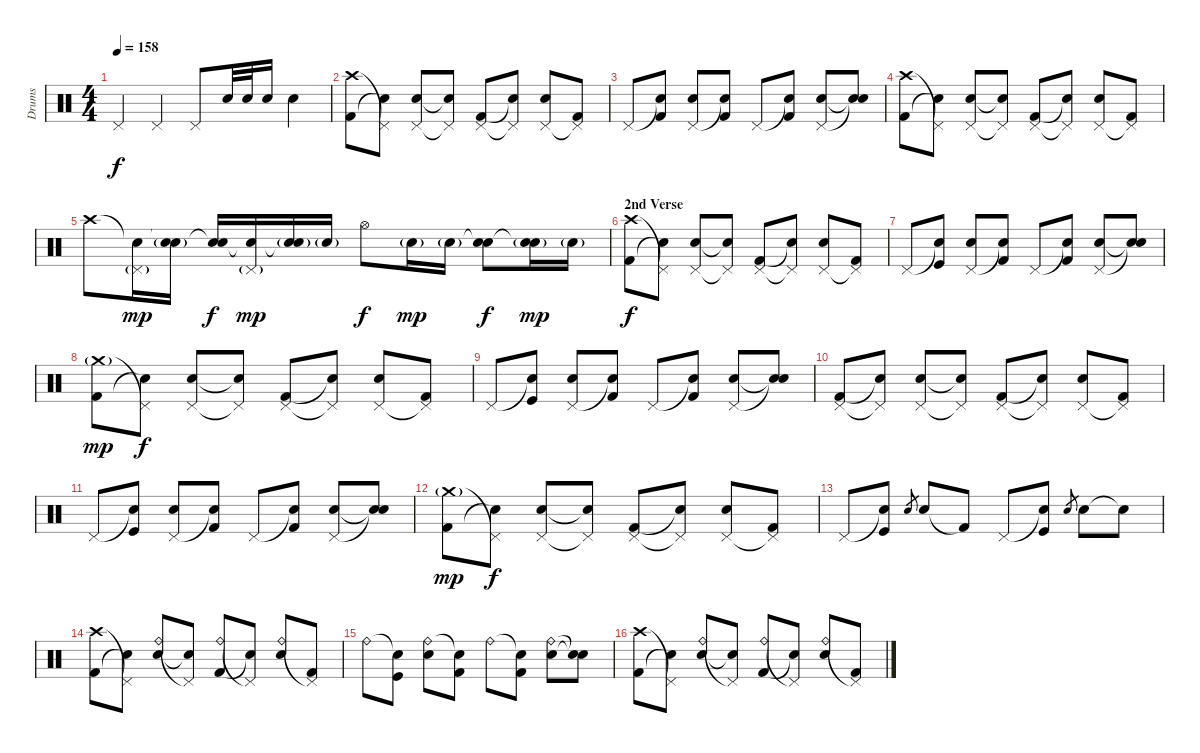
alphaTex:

\track ("Drums" "Drums") {instrument percussion}
\staff {score}
\articulation defaults
\ts (4 4)
\tempo 158
\clef neutral
\ks c "Pedal Hi-Hat (hit)".4{dy f} "Pedal Hi-Hat (hit)".4 "Pedal Hi-Hat (hit)".8 "Electric Snare (hit)".32 "Electric Snare (hit)".32 "Electric Snare (hit)".16 "Electric Snare (hit)".4
|
("Crash high (hit)" "Kick (hit) 2").8 ("Pedal Hi-Hat (hit)"{t} "Electric Snare (hit)"{t}).8 ("Pedal Hi-Hat (hit)" "Electric Snare (hit)").8 ("Pedal Hi-Hat (hit)"{t} "Snare (hit)"{t}).8 ("Pedal Hi-Hat (hit)" "Kick (hit) 2").8 ("Pedal Hi-Hat (hit)"{t} "Electric Snare (hit)"{t}).8 ("Pedal Hi-Hat (hit)" "Electric Snare (hit)").8 ("Pedal Hi-Hat (hit)"{t} "Kick (hit) 2").8 |
"Pedal Hi-Hat (hit)".8 ("Snare (hit)"{t} "Kick (hit) 2").8 ("Pedal Hi-Hat (hit)" "Electric Snare (hit)").8 ("Snare (hit)"{t} "Kick (hit) 2").8 "Pedal Hi-Hat (hit)".8 ("Snare (hit)"{t} "Kick (hit) 2").8 ("Pedal Hi-Hat (hit)" "Electric Snare (hit)").8 ("Snare (hit)"{t} "Snare (hit)"{t}).8 |
("Crash high (hit)" "Kick (hit) 2").8 ("Pedal Hi-Hat (hit)"{t} "Electric Snare (hit)"{t}).8 ("Pedal Hi-Hat (hit)" "Electric Snare (hit)").8 ("Pedal Hi-Hat (hit)"{t} "Snare (hit)"{t}).8 ("Pedal Hi-Hat (hit)" "Kick (hit) 2").8 ("Pedal Hi-Hat (hit)"{t} "Electric Snare (hit)"{t}).8 ("Pedal Hi-Hat (hit)" "Electric Snare (hit)").8 ("Pedal Hi-Hat (hit)"{t} "Kick (hit) 2").8 |
"Crash high (hit)".8 ("Snare (hit)"{t} "Pedal Hi-Hat (hit)"{g}).16{dy mp} ("Snare (hit)"{t} "Electric Snare (hit)"{g}).16 ("Snare (hit)"{t} "Electric Snare (hit)").16{dy f} ("Snare (hit)"{t} "Pedal Hi-Hat (hit)"{g}).16{dy mp} ("Snare (hit)"{t} "Electric Snare (hit)"{g}).16 "Electric Snare (hit)"{g}.16 "Hi-Hat (open)".8{dy f} "Electric Snare (hit)"{g}.16{dy mp} "Electric Snare (hit)"{g}.16 ("Snare (hit)"{t} "Electric Snare (hit)").8{dy f} ("Snare (hit)"{t} "Electric Snare (hit)"{g}).16{dy mp} "Electric Snare (hit)"{g}.16 |
\section ("" "2nd Verse")
("Crash high (hit)" "Kick (hit) 2").8{dy f} ("Pedal Hi-Hat (hit)"{t} "Electric Snare (hit)"{t}).8 ("Pedal Hi-Hat (hit)" "Electric Snare (hit)").8 ("Pedal Hi-Hat (hit)"{t} "Snare (hit)"{t}).8 ("Pedal Hi-Hat (hit)" "Kick (hit) 2").8 ("Pedal Hi-Hat (hit)"{t} "Electric Snare (hit)"{t}).8 ("Pedal Hi-Hat (hit)" "Electric Snare (hit)").8 ("Pedal Hi-Hat (hit)"{t} "Kick (hit) 2").8 |
"Pedal Hi-Hat (hit)".8 ("Snare (hit)"{t} "Kick (hit)").8 ("Pedal Hi-Hat (hit)" "Electric Snare (hit)").8 ("Snare (hit)"{t} "Kick (hit) 2").8 "Pedal Hi-Hat (hit)".8 ("Snare (hit)"{t} "Kick (hit) 2").8 ("Pedal Hi-Hat (hit)" "Electric Snare (hit)").8 ("Snare (hit)"{t} "Snare (hit)"{t}).8 |
("Crash medium (hit)"{g} "Kick (hit) 2").8{dy mp} ("Pedal Hi-Hat (hit)"{t} "Electric Snare (hit)"{t}).8{dy f} ("Pedal Hi-Hat (hit)" "Electric Snare (hit)").8 ("Pedal Hi-Hat (hit)"{t} "Snare (hit)"{t}).8 ("Pedal Hi-Hat (hit)" "Kick (hit) 2").8 ("Pedal Hi-Hat (hit)"{t} "Electric Snare (hit)"{t}).8 ("Pedal Hi-Hat (hit)" "Electric Snare (hit)").8 ("Pedal Hi-Hat (hit)"{t} "Kick (hit) 2").8 |
"Pedal Hi-Hat (hit)".8 ("Snare (hit)"{t} "Kick (hit)").8 ("Pedal Hi-Hat (hit)" "Electric Snare (hit)").8 ("Snare (hit)"{t} "Kick (hit) 2").8 "Pedal Hi-Hat (hit)".8 ("Snare (hit)"{t} "Kick (hit) 2").8 ("Pedal Hi-Hat (hit)" "Electric Snare (hit)").8 ("Snare (hit)"{t} "Snare (hit)"{t}).8 |
("Pedal Hi-Hat (hit)" "Kick (hit) 2").8 ("Pedal Hi-Hat (hit)"{t} "Electric Snare (hit)"{t}).8 ("Pedal Hi-Hat (hit)" "Electric Snare (hit)").8 ("Pedal Hi-Hat (hit)"{t} "Snare (hit)"{t}).8 ("Pedal Hi-Hat (hit)" "Kick (hit) 2").8 ("Pedal Hi-Hat (hit)"{t} "Electric Snare (hit)"{t}).8 ("Pedal Hi-Hat (hit)" "Electric Snare (hit)").8 ("Pedal Hi-Hat (hit)"{t} "Kick (hit) 2").8 |
"Pedal Hi-Hat (hit)".8 ("Snare (hit)"{t} "Kick (hit)").8 ("Pedal Hi-Hat (hit)" "Electric Snare (hit)").8 ("Snare (hit)"{t} "Kick (hit) 2").8 "Pedal Hi-Hat (hit)".8 ("Snare (hit)"{t} "Kick (hit) 2").8 ("Pedal Hi-Hat (hit)" "Electric Snare (hit)").8 ("Snare (hit)"{t} "Snare (hit)"{t}).8 |
("Crash medium (hit)"{g} "Kick (hit) 2").8{dy mp} ("Pedal Hi-Hat (hit)"{t} "Electric Snare (hit)"{t}).8{dy f} ("Pedal Hi-Hat (hit)" "Electric Snare (hit)").8 ("Pedal Hi-Hat (hit)"{t} "Snare (hit)"{t}).8 ("Pedal Hi-Hat (hit)" "Kick (hit) 2").8 ("Pedal Hi-Hat (hit)"{t} "Electric Snare (hit)"{t}).8 ("Pedal Hi-Hat (hit)" "Electric Snare (hit)").8 ("Pedal Hi-Hat (hit)"{t} "Kick (hit) 2").8 |
"Pedal Hi-Hat (hit)".8 ("Snare (hit)"{t} "Kick (hit)").8 "Electric Snare (hit)".8{gr} "Electric Snare (hit)".8 "Kick (hit) 2"{t}.8 "Pedal Hi-Hat (hit)".8 ("Snare (hit)"{t} "Kick (hit)").8 "Electric Snare (hit)".8{gr} "Electric Snare (hit)".8 "Snare (hit)"{t}.8 |
\section ("" "")
("Crash high (hit)" "Kick (hit) 2").8 ("Pedal Hi-Hat (hit)"{t} "Electric Snare (hit)"{t}).8 ("Ride (bell)" "Electric Snare (hit)").8 ("Pedal Hi-Hat (hit)"{t} "Snare (hit)"{t}).8 ("Ride (bell)" "Kick (hit) 2").8 ("Pedal Hi-Hat (hit)"{t} "Electric Snare (hit)"{t}).8 ("Ride (bell)" "Electric Snare (hit)").8 ("Pedal Hi-Hat (hit)"{t} "Kick (hit) 2").8 |
"Ride (bell)".8 ("Snare (hit)"{t} "Kick (hit)").8 ("Ride (bell)" "Electric Snare (hit)").8 ("Snare (hit)"{t} "Kick (hit) 2").8 "Ride (bell)".8 ("Snare (hit)"{t} "Kick (hit) 2").8 ("Ride (bell)" "Electric Snare (hit)").8 ("Snare (hit)"{t} "Snare (hit)"{t}).8 |
("Crash high (hit)" "Kick (hit) 2").8 ("Pedal Hi-Hat (hit)"{t} "Electric Snare (hit)"{t}).8 ("Ride (bell)" "Electric Snare (hit)").8 ("Pedal Hi-Hat (hit)"{t} "Snare (hit)"{t}).8 ("Ride (bell)" "Kick (hit) 2").8 ("Pedal Hi-Hat (hit)"{t} "Electric Snare (hit)"{t}).8 ("Ride (bell)" "Electric Snare (hit)").8 ("Pedal Hi-Hat (hit)"{t} "Kick (hit) 2").8
